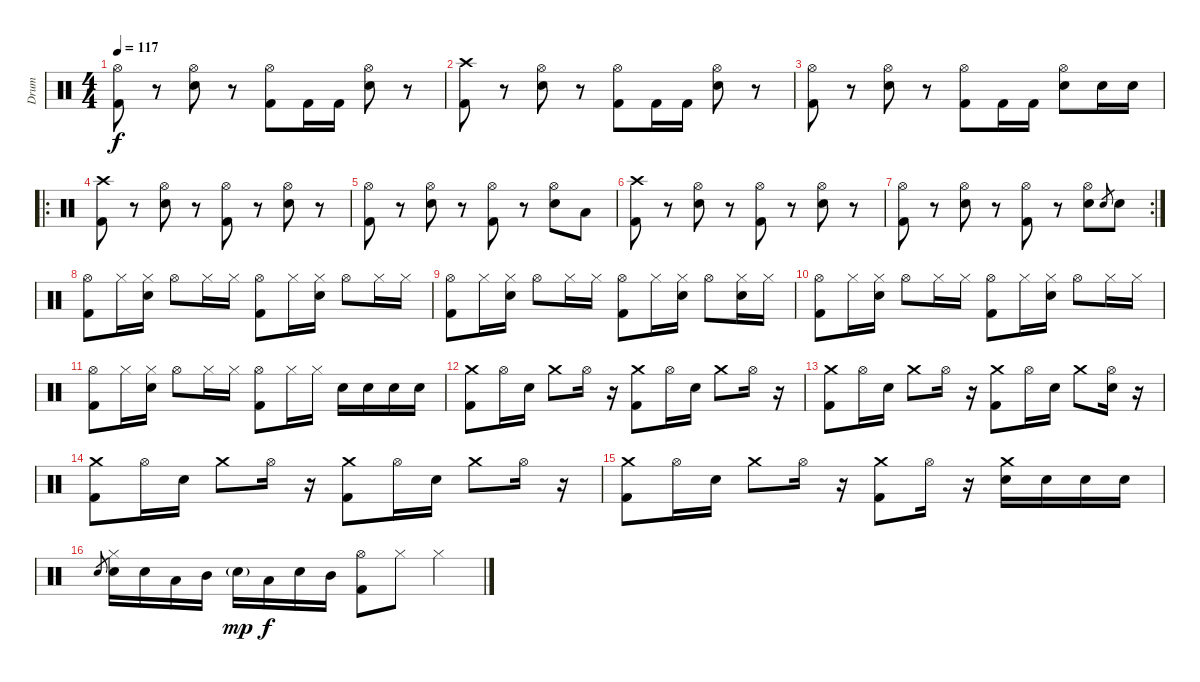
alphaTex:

\track ("Drum" "Drum") {instrument percussion}
\staff {score}
\articulation defaults
\ts (4 4)
\tempo 117
\clef neutral
\ks c
("Hi-Hat (open)" "Kick (hit) 2").8{dy f} r.8 ("Hi-Hat (open)" "Electric Snare (hit)").8 r.8 ("Hi-Hat (open)" "Kick (hit) 2").8 "Kick (hit) 2".16 "Kick (hit) 2".16 ("Hi-Hat (open)" "Electric Snare (hit)").8 r.8 |
("Crash high (hit)" "Kick (hit) 2").8 r.8 ("Hi-Hat (open)" "Electric Snare (hit)").8 r.8 ("Hi-Hat (open)" "Kick (hit) 2").8 "Kick (hit) 2".16 "Kick (hit) 2".16 ("Hi-Hat (open)" "Electric Snare (hit)").8 r.8 |
("Hi-Hat (open)" "Kick (hit) 2").8 r.8 ("Hi-Hat (open)" "Electric Snare (hit)").8 r.8 ("Hi-Hat (open)" "Kick (hit) 2").8 "Kick (hit) 2".16 "Kick (hit) 2".16 ("Hi-Hat (open)" "Electric Snare (hit)").8 "Electric Snare (hit)".16 "Electric Snare (hit)".16 |
\ro
("Crash high (hit)" "Kick (hit) 2").8 r.8 ("Hi-Hat (open)" "Electric Snare (hit)").8 r.8 ("Hi-Hat (open)" "Kick (hit) 2").8 r.8 ("Hi-Hat (open)" "Electric Snare (hit)").8 r.8 |
("Hi-Hat (open)" "Kick (hit) 2").8 r.8 ("Hi-Hat (open)" "Electric Snare (hit)").8 r.8 ("Hi-Hat (open)" "Kick (hit) 2").8 r.8 ("Hi-Hat (open)" "Electric Snare (hit)").8 "Low Tom (hit)".8 |
("Crash high (hit)" "Kick (hit) 2").8 r.8 ("Hi-Hat (open)" "Electric Snare (hit)").8 r.8 ("Hi-Hat (open)" "Kick (hit) 2").8 r.8 ("Hi-Hat (open)" "Electric Snare (hit)").8 r.8 |
\rc 2
("Hi-Hat (open)" "Kick (hit) 2").8 r.8 ("Hi-Hat (open)" "Electric Snare (hit)").8 r.8 ("Hi-Hat (open)" "Kick (hit) 2").8 r.8 ("Hi-Hat (open)" "Electric Snare (hit)").8 "Electric Snare (hit)".8{gr} "Electric Snare (hit)".8 |
("Hi-Hat (open)" "Kick (hit) 2").8 "Hi-Hat (closed)".16 ("Hi-Hat (closed)" "Electric Snare (hit)").16 "Hi-Hat (open)".8 "Hi-Hat (closed)".16 "Hi-Hat (closed)".16 ("Hi-Hat (open)" "Kick (hit) 2").8 "Hi-Hat (closed)".16 ("Hi-Hat (closed)" "Electric Snare (hit)").16 "Hi-Hat (open)".8 "Hi-Hat (closed)".16 "Hi-Hat (closed)".16 |
("Hi-Hat (open)" "Kick (hit) 2").8 "Hi-Hat (closed)".16 ("Hi-Hat (closed)" "Electric Snare (hit)").16 "Hi-Hat (open)".8 "Hi-Hat (closed)".16 "Hi-Hat (closed)".16 ("Hi-Hat (open)" "Kick (hit) 2").8 "Hi-Hat (closed)".16 ("Hi-Hat (closed)" "Electric Snare (hit)").16 "Hi-Hat (open)".8 ("Hi-Hat (closed)" "Electric Snare (hit)").16 "Hi-Hat (closed)".16 |
("Hi-Hat (open)" "Kick (hit) 2").8 "Hi-Hat (closed)".16 ("Hi-Hat (closed)" "Electric Snare (hit)").16 "Hi-Hat (open)".8 "Hi-Hat (closed)".16 "Hi-Hat (closed)".16 ("Hi-Hat (open)" "Kick (hit) 2").8 "Hi-Hat (closed)".16 ("Hi-Hat (closed)" "Electric Snare (hit)").16 "Hi-Hat (open)".8 "Hi-Hat (closed)".16 "Hi-Hat (closed)".16 |
("Hi-Hat (open)" "Kick (hit) 2").8 "Hi-Hat (closed)".16 ("Hi-Hat (closed)" "Electric Snare (hit)").16 "Hi-Hat (open)".8 "Hi-Hat (closed)".16 "Hi-Hat (closed)".16 ("Hi-Hat (open)" "Kick (hit) 2").8 "Hi-Hat (closed)".16 "Hi-Hat (closed)".16 "Electric Snare (hit)".16 "Electric Snare (hit)".16 "Electric Snare (hit)".16 "Electric Snare (hit)".16 |
("Crash medium (hit)" "Kick (hit) 2").8 "Hi-Hat (open)".16 "Electric Snare (hit)".16 "Crash medium (hit)".8 "Hi-Hat (open)".16 r.16 ("Crash medium (hit)" "Kick (hit) 2").8 "Hi-Hat (open)".16 "Electric Snare (hit)".16 "Crash medium (hit)".8 "Hi-Hat (open)".16 r.16 |
("Crash medium (hit)" "Kick (hit) 2").8 "Hi-Hat (open)".16 "Electric Snare (hit)".16 "Crash medium (hit)".8 "Hi-Hat (open)".16 r.16 ("Crash medium (hit)" "Kick (hit) 2").8 "Hi-Hat (open)".16 "Electric Snare (hit)".16 "Crash medium (hit)".8 ("Hi-Hat (open)" "Electric Snare (hit)").16 r.16 |
("Crash medium (hit)" "Kick (hit) 2").8 "Hi-Hat (open)".16 "Electric Snare (hit)".16 "Crash medium (hit)".8 "Hi-Hat (open)".16 r.16 ("Crash medium (hit)" "Kick (hit) 2").8 "Hi-Hat (open)".16 "Electric Snare (hit)".16 "Crash medium (hit)".8 "Hi-Hat (open)".16 r.16 |
("Crash medium (hit)" "Kick (hit) 2").8 "Hi-Hat (open)".16 "Electric Snare (hit)".16 "Crash medium (hit)".8 "Hi-Hat (open)".16 r.16 ("Crash medium (hit)" "Kick (hit) 2").8 "Hi-Hat (open)".16 r.16 ("Crash medium (hit)" "Electric Snare (hit)").16 "Electric Snare (hit)".16 "Electric Snare (hit)".16 "Electric Snare (hit)".16 |
"Electric Snare (hit)".8{gr} ("Hi-Hat (closed)" "Electric Snare (hit)").16 "Electric Snare (hit)".16 "Low Tom (hit)".16 "Mid Tom (hit)".16 "Electric Snare (hit)"{g}.16{dy mp} "Low Tom (hit)".16{dy f} "Electric Snare (hit)".16 "Mid Tom (hit)".16 ("Hi-Hat (open)" "Kick (hit) 2").8 "Hi-Hat (closed)".8 "Hi-Hat (closed)".4
